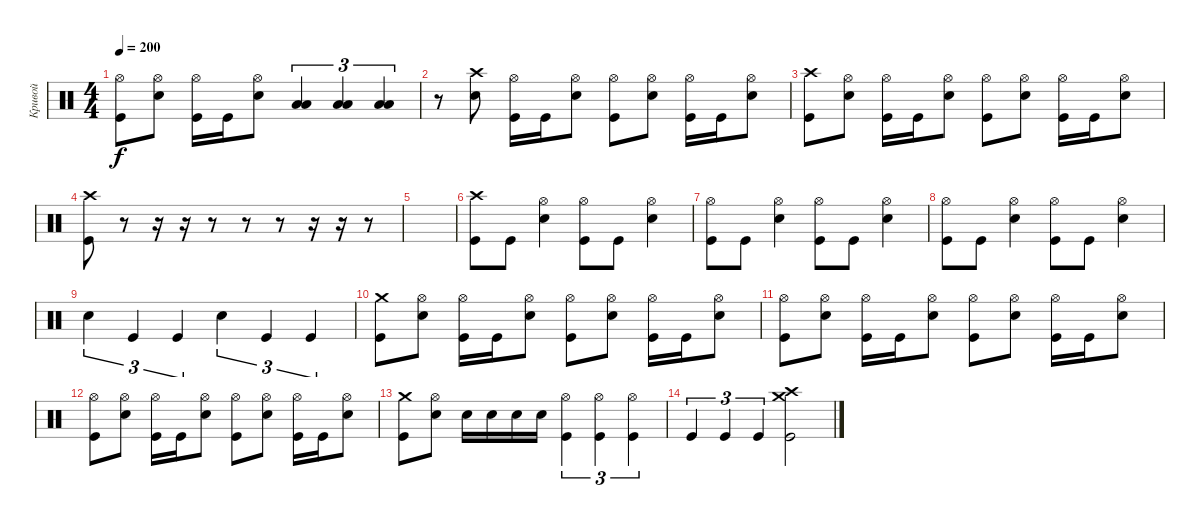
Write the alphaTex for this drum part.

\track ("Кривой" "Кривой") {instrument percussion}
\staff {score}
\articulation defaults
\ts (4 4)
\tempo 200
\clef neutral
\ks c
("Hi-Hat (open)" "Kick (hit)").8{dy f} ("Hi-Hat (open)" "Electric Snare (hit)").8 ("Hi-Hat (open)" "Kick (hit)").16 "Kick (hit)".16 ("Hi-Hat (open)" "Electric Snare (hit)").8 ("Low Tom (hit)" "Low Floor Tom (hit)").4{tu (3 2)} ("Low Tom (hit)" "Low Floor Tom (hit)").4{tu (3 2)} ("Low Tom (hit)" "Low Floor Tom (hit)").4{tu (3 2)} |
r.8 ("Crash high (hit)" "Electric Snare (hit)").8 ("Hi-Hat (open)" "Kick (hit)").16 "Kick (hit)".16 ("Hi-Hat (open)" "Electric Snare (hit)").8 ("Hi-Hat (open)" "Kick (hit)").8 ("Hi-Hat (open)" "Electric Snare (hit)").8 ("Hi-Hat (open)" "Kick (hit)").16 "Kick (hit)".16 ("Hi-Hat (open)" "Electric Snare (hit)").8 |
("Crash high (hit)" "Kick (hit)").8 ("Hi-Hat (open)" "Electric Snare (hit)").8 ("Hi-Hat (open)" "Kick (hit)").16 "Kick (hit)".16 ("Hi-Hat (open)" "Electric Snare (hit)").8 ("Hi-Hat (open)" "Kick (hit)").8 ("Hi-Hat (open)" "Electric Snare (hit)").8 ("Hi-Hat (open)" "Kick (hit)").16 "Kick (hit)".16 ("Hi-Hat (open)" "Electric Snare (hit)").8 |
("Crash high (hit)" "Kick (hit)").8 r.8 r.16 r.16 r.8 r.8 r.8 r.16 r.16 r.8 |
|
("Crash high (hit)" "Kick (hit)").8 "Kick (hit)".8 ("Hi-Hat (open)" "Electric Snare (hit)").4 ("Hi-Hat (open)" "Kick (hit)").8 "Kick (hit)".8 ("Hi-Hat (open)" "Electric Snare (hit)").4 |
("Hi-Hat (open)" "Kick (hit)").8 "Kick (hit)".8 ("Hi-Hat (open)" "Electric Snare (hit)").4 ("Hi-Hat (open)" "Kick (hit)").8 "Kick (hit)".8 ("Hi-Hat (open)" "Electric Snare (hit)").4 |
("Hi-Hat (open)" "Kick (hit)").8 "Kick (hit)".8 ("Hi-Hat (open)" "Electric Snare (hit)").4 ("Hi-Hat (open)" "Kick (hit)").8 "Kick (hit)".8 ("Hi-Hat (open)" "Electric Snare (hit)").4 |
"Electric Snare (hit)".4{tu (3 2)} "Kick (hit)".4{tu (3 2)} "Kick (hit)".4{tu (3 2)} "Electric Snare (hit)".4{tu (3 2)} "Kick (hit)".4{tu (3 2)} "Kick (hit)".4{tu (3 2)} |
("Crash medium (hit)" "Kick (hit)").8 ("Hi-Hat (open)" "Electric Snare (hit)").8 ("Hi-Hat (open)" "Kick (hit)").16 "Kick (hit)".16 ("Hi-Hat (open)" "Electric Snare (hit)").8 ("Hi-Hat (open)" "Kick (hit)").8 ("Hi-Hat (open)" "Electric Snare (hit)").8 ("Hi-Hat (open)" "Kick (hit)").16 "Kick (hit)".16 ("Hi-Hat (open)" "Electric Snare (hit)").8 |
("Hi-Hat (open)" "Kick (hit)").8 ("Hi-Hat (open)" "Electric Snare (hit)").8 ("Hi-Hat (open)" "Kick (hit)").16 "Kick (hit)".16 ("Hi-Hat (open)" "Electric Snare (hit)").8 ("Hi-Hat (open)" "Kick (hit)").8 ("Hi-Hat (open)" "Electric Snare (hit)").8 ("Hi-Hat (open)" "Kick (hit)").16 "Kick (hit)".16 ("Hi-Hat (open)" "Electric Snare (hit)").8 |
("Hi-Hat (open)" "Kick (hit)").8 ("Hi-Hat (open)" "Electric Snare (hit)").8 ("Hi-Hat (open)" "Kick (hit)").16 "Kick (hit)".16 ("Hi-Hat (open)" "Electric Snare (hit)").8 ("Hi-Hat (open)" "Kick (hit)").8 ("Hi-Hat (open)" "Electric Snare (hit)").8 ("Hi-Hat (open)" "Kick (hit)").16 "Kick (hit)".16 ("Hi-Hat (open)" "Electric Snare (hit)").8 |
("Crash medium (hit)" "Kick (hit)").8 ("Hi-Hat (open)" "Electric Snare (hit)").8 "Electric Snare (hit)".16 "Electric Snare (hit)".16 "Electric Snare (hit)".16 "Electric Snare (hit)".16 ("Hi-Hat (open)" "Kick (hit)").4{tu (3 2)} ("Hi-Hat (open)" "Kick (hit)").4{tu (3 2)} ("Hi-Hat (open)" "Kick (hit)").4{tu (3 2)} |
"Kick (hit)".4{tu (3 2)} "Kick (hit)".4{tu (3 2)} "Kick (hit)".4{tu (3 2)} ("Crash medium (hit)" "Crash high (hit)" "Kick (hit)").2
